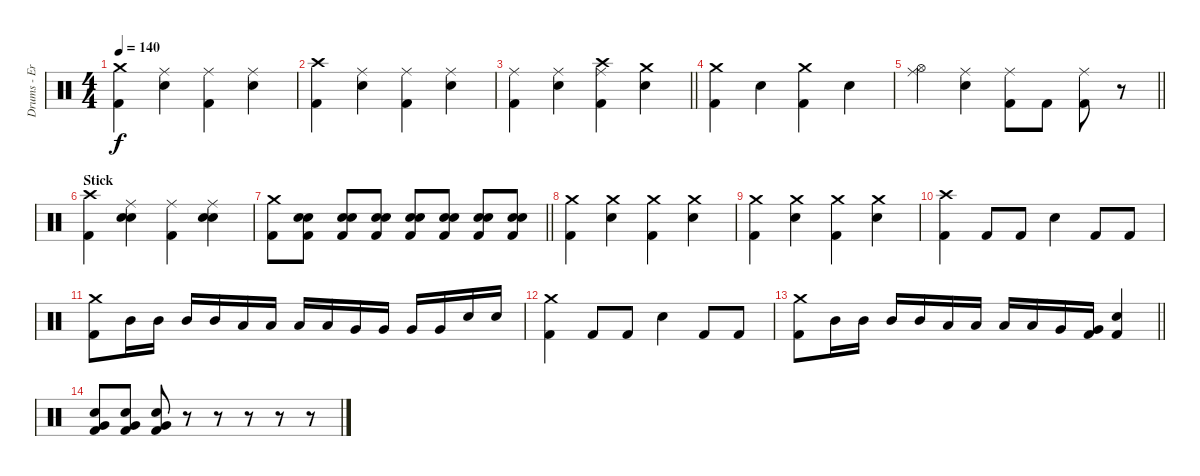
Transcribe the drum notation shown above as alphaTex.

\track ("Drums - Eric Young" "Drums - Er") {instrument percussion}
\staff {score}
\articulation defaults
\ts (4 4)
\tempo 140
\clef neutral
\ks c
("Crash medium (hit)" "Kick (hit) 2").4{dy f} ("Ride (middle)" "Electric Snare (hit)").4 ("Ride (middle)" "Kick (hit) 2").4 ("Ride (middle)" "Electric Snare (hit)").4 |
("Crash high (hit)" "Kick (hit) 2").4 ("Ride (middle)" "Electric Snare (hit)").4 ("Ride (middle)" "Kick (hit) 2").4 ("Ride (middle)" "Electric Snare (hit)").4 |
\barLineRight lightlight
("Ride (middle)" "Kick (hit) 2").4 ("Ride (middle)" "Electric Snare (hit)").4 ("Crash high (hit)" "Ride (middle)" "Kick (hit) 2").4 ("Crash medium (hit)" "Electric Snare (hit)").4 |
("Crash medium (hit)" "Kick (hit) 2").4 "Electric Snare (hit)".4 ("Crash medium (hit)" "Kick (hit) 2").4 "Electric Snare (hit)".4 |
\barLineRight lightlight
("Ride (middle)" "Hi-Hat (open)").4 ("Ride (middle)" "Electric Snare (hit)").4 ("Ride (middle)" "Kick (hit) 2").8 "Kick (hit) 2".8 ("Ride (middle)" "Kick (hit) 2").8 r.8 |
\section ("" "Stick")
("Crash high (hit)" "Kick (hit) 2").4 ("Ride (middle)" "Electric Snare (hit)" "Snare (hit) 2").4 ("Ride (middle)" "Kick (hit) 2").4 ("Ride (middle)" "Electric Snare (hit)" "Snare (hit) 2").4 |
\barLineRight lightlight
("Crash medium (hit)" "Kick (hit) 2").8 ("Electric Snare (hit)" "Snare (hit) 2" "Kick (hit) 2").8 ("Electric Snare (hit)" "Snare (hit) 2" "Kick (hit) 2").8 ("Electric Snare (hit)" "Snare (hit) 2" "Kick (hit) 2").8 ("Electric Snare (hit)" "Snare (hit) 2" "Kick (hit) 2").8 ("Electric Snare (hit)" "Snare (hit) 2" "Kick (hit) 2").8 ("Electric Snare (hit)" "Snare (hit) 2" "Kick (hit) 2").8 ("Electric Snare (hit)" "Snare (hit) 2" "Kick (hit) 2").8 |
("Crash medium (hit)" "Kick (hit) 2").4 ("Crash medium (hit)" "Electric Snare (hit)").4 ("Crash medium (hit)" "Kick (hit) 2").4 ("Crash medium (hit)" "Electric Snare (hit)").4 |
("Crash medium (hit)" "Kick (hit) 2").4 ("Crash medium (hit)" "Electric Snare (hit)").4 ("Crash medium (hit)" "Kick (hit) 2").4 ("Crash medium (hit)" "Electric Snare (hit)").4 |
("Crash high (hit)" "Kick (hit) 2").4 "Kick (hit) 2".8 "Kick (hit) 2".8 "Electric Snare (hit)".4 "Kick (hit) 2".8 "Kick (hit) 2".8 |
("Crash medium (hit)" "Kick (hit) 2").8 "Mid Tom (hit)".16 "Mid Tom (hit)".16 "Mid Tom (hit)".16 "Mid Tom (hit)".16 "Low Tom (hit)".16 "Low Tom (hit)".16 "Low Tom (hit)".16 "Low Tom (hit)".16 "Very Low Tom (hit)".16 "Very Low Tom (hit)".16 "Very Low Tom (hit)".16 "Very Low Tom (hit)".16 "Electric Snare (hit)".16 "Electric Snare (hit)".16 |
("Crash medium (hit)" "Kick (hit) 2").4 "Kick (hit) 2".8 "Kick (hit) 2".8 "Electric Snare (hit)".4 "Kick (hit) 2".8 "Kick (hit) 2".8 |
\barLineRight lightlight
("Crash medium (hit)" "Kick (hit) 2").8 "Mid Tom (hit)".16 "Mid Tom (hit)".16 "Mid Tom (hit)".16 "Mid Tom (hit)".16 "Low Tom (hit)".16 "Low Tom (hit)".16 "Low Tom (hit)".16 "Low Tom (hit)".16 "Very Low Tom (hit)".16 ("Very Low Tom (hit)" "Kick (hit) 2").16 ("Electric Snare (hit)" "Kick (hit) 2").4 |
("Electric Snare (hit)" "Very Low Tom (hit)" "Kick (hit) 2").8 ("Electric Snare (hit)" "Very Low Tom (hit)" "Kick (hit) 2").8 ("Electric Snare (hit)" "Very Low Tom (hit)" "Kick (hit) 2").8 r.8 r.8 r.8 r.8 r.8
